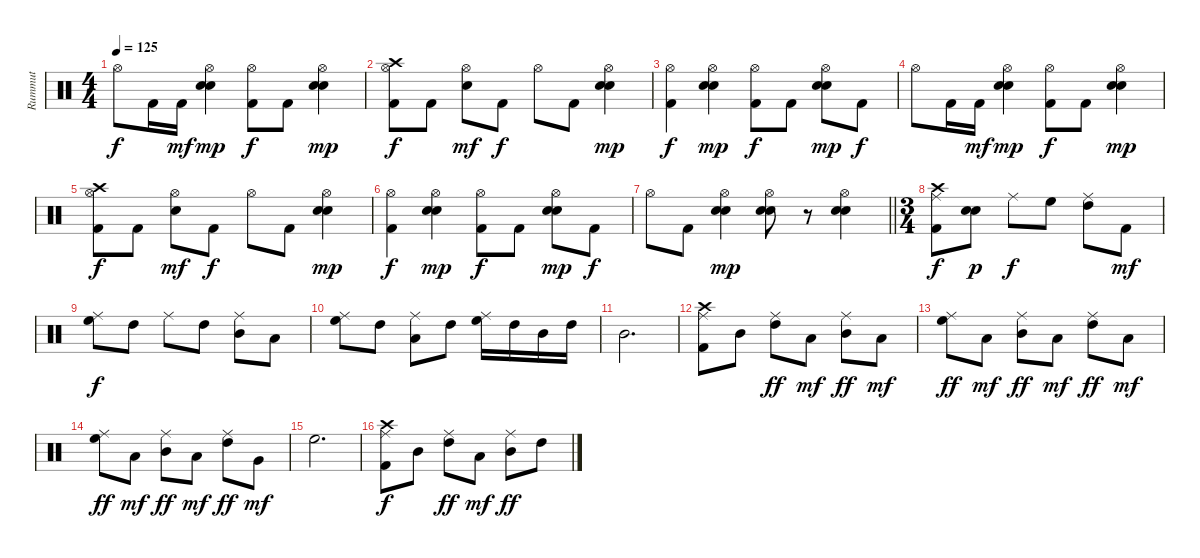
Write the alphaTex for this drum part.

\track ("Rummut" "Rummut") {instrument percussion}
\staff {score}
\articulation defaults
\ts (4 4)
\tempo 125
\clef neutral
\ks c "Hi-Hat (open)".8{dy f} "Kick (hit) 2".16 "Kick (hit) 2".16{dy mf}
("Hi-Hat (open)" "Electric Snare (hit)" "Snare (hit) 2").4{dy mp} ("Hi-Hat (open)" "Kick (hit) 2").8{dy f} "Kick (hit) 2".8 ("Hi-Hat (open)" "Electric Snare (hit)" "Snare (hit) 2").4{dy mp} |
("Crash high (hit)" "Hi-Hat (open)" "Kick (hit) 2").8{dy f} "Kick (hit) 2".8 ("Hi-Hat (open)" "Electric Snare (hit)").8{dy mf} "Kick (hit) 2".8{dy f} "Hi-Hat (open)".8 "Kick (hit) 2".8 ("Hi-Hat (open)" "Electric Snare (hit)" "Snare (hit) 2").4{dy mp} |
("Hi-Hat (open)" "Kick (hit) 2").4{dy f} ("Hi-Hat (open)" "Electric Snare (hit)" "Snare (hit) 2").4{dy mp} ("Hi-Hat (open)" "Kick (hit) 2").8{dy f} "Kick (hit) 2".8 ("Hi-Hat (open)" "Electric Snare (hit)" "Snare (hit) 2").8{dy mp} "Kick (hit) 2".8{dy f} |
"Hi-Hat (open)".8 "Kick (hit) 2".16 "Kick (hit) 2".16{dy mf} ("Hi-Hat (open)" "Electric Snare (hit)" "Snare (hit) 2").4{dy mp} ("Hi-Hat (open)" "Kick (hit) 2").8{dy f} "Kick (hit) 2".8 ("Hi-Hat (open)" "Electric Snare (hit)" "Snare (hit) 2").4{dy mp} |
("Crash high (hit)" "Hi-Hat (open)" "Kick (hit) 2").8{dy f} "Kick (hit) 2".8 ("Hi-Hat (open)" "Electric Snare (hit)").8{dy mf} "Kick (hit) 2".8{dy f} "Hi-Hat (open)".8 "Kick (hit) 2".8 ("Hi-Hat (open)" "Electric Snare (hit)" "Snare (hit) 2").4{dy mp} |
("Hi-Hat (open)" "Kick (hit) 2").4{dy f} ("Hi-Hat (open)" "Electric Snare (hit)" "Snare (hit) 2").4{dy mp} ("Hi-Hat (open)" "Kick (hit) 2").8{dy f} "Kick (hit) 2".8 ("Hi-Hat (open)" "Electric Snare (hit)" "Snare (hit) 2").8{dy mp} "Kick (hit) 2".8{dy f} |
\barLineRight lightlight "Hi-Hat (open)".8 "Kick (hit) 2".8
("Hi-Hat (open)" "Electric Snare (hit)" "Snare (hit) 2").4{dy mp} ("Hi-Hat (open)" "Electric Snare (hit)" "Snare (hit) 2").8 r.8 ("Hi-Hat (open)" "Electric Snare (hit)" "Snare (hit) 2").4 |
\ts (3 4)
\section ("" "")
("Crash high (hit)" "Ride (middle)" "Kick (hit) 2").8{dy f} ("Electric Snare (hit)" "Snare (hit) 2").8{dy p} "Ride (middle)".8{dy f} "High Floor Tom (hit)".8 ("Ride (middle)" "High Tom (hit)").8 "Kick (hit) 2".8{dy mf} |
("Ride (middle)" "High Floor Tom (hit)").8{dy f} "High Tom (hit)".8 "Ride (middle)".8 "High Tom (hit)".8 ("Ride (middle)" "Mid Tom (hit)").8 "Low Tom (hit)".8 |
("Ride (middle)" "High Floor Tom (hit)").8 "High Tom (hit)".8 ("Ride (middle)" "Low Tom (hit)").8 "High Tom (hit)".8 ("Ride (middle)" "High Floor Tom (hit)").16 "High Tom (hit)".16 "Mid Tom (hit)".16 "High Tom (hit)".16 |
"Mid Tom (hit)".2{d} |
("Crash high (hit)" "Ride (middle)" "Kick (hit) 2").8 "Mid Tom (hit)".8 ("Ride (middle)" "High Tom (hit)").8{dy ff} "Low Floor Tom (hit)".8{dy mf} ("Ride (middle)" "Mid Tom (hit)").8{dy ff} "Low Floor Tom (hit)".8{dy mf} |
("Ride (middle)" "High Floor Tom (hit)").8{dy ff} "Low Floor Tom (hit)".8{dy mf} ("Ride (middle)" "Mid Tom (hit)").8{dy ff} "Low Floor Tom (hit)".8{dy mf} ("Ride (middle)" "High Tom (hit)").8{dy ff} "Low Floor Tom (hit)".8{dy mf} |
("Ride (middle)" "High Floor Tom (hit)").8{dy ff} "Low Tom (hit)".8{dy mf} ("Ride (middle)" "Mid Tom (hit)").8{dy ff} "Low Tom (hit)".8{dy mf} ("Ride (middle)" "High Tom (hit)").8{dy ff} "Very Low Tom (hit)".8{dy mf} |
"High Floor Tom (hit)".2{d} |
("Crash high (hit)" "Ride (middle)" "Kick (hit) 2").8{dy f} "Mid Tom (hit)".8 ("Ride (middle)" "High Tom (hit)").8{dy ff} "Low Floor Tom (hit)".8{dy mf} ("Ride (middle)" "Mid Tom (hit)").8{dy ff} "High Tom (hit)".8
